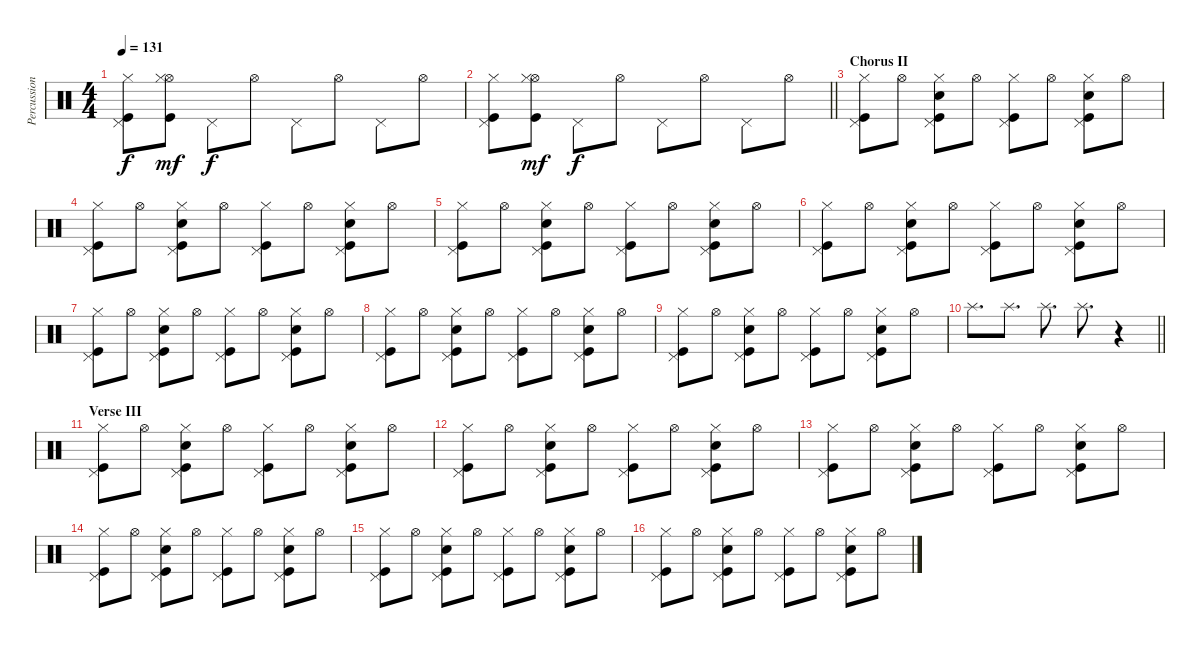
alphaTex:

\track ("Percussion II" "Percussion") {instrument percussion}
\staff {score}
\articulation defaults
\ts (4 4)
\tempo 131
\clef neutral
\ks c
("Pedal Hi-Hat (hit)" "Hi-Hat (closed)" "Kick (hit)").8{dy f} ("Hi-Hat (open)" "Hi-Hat (closed)" "Kick (hit)").8{dy mf} "Pedal Hi-Hat (hit)".8{dy f} "Hi-Hat (open)".8 "Pedal Hi-Hat (hit)".8 "Hi-Hat (open)".8 "Pedal Hi-Hat (hit)".8 "Hi-Hat (open)".8 |
\barLineRight lightlight
("Pedal Hi-Hat (hit)" "Hi-Hat (closed)" "Kick (hit)").8 ("Hi-Hat (open)" "Hi-Hat (closed)" "Kick (hit)").8{dy mf} "Pedal Hi-Hat (hit)".8{dy f} "Hi-Hat (open)".8 "Pedal Hi-Hat (hit)".8 "Hi-Hat (open)".8 "Pedal Hi-Hat (hit)".8 "Hi-Hat (open)".8 |
\section ("" "Chorus II")
("Pedal Hi-Hat (hit)" "Hi-Hat (closed)" "Kick (hit)").8 "Hi-Hat (open)".8 ("Pedal Hi-Hat (hit)" "Hand Clap (hit)" "Hi-Hat (closed)" "Kick (hit)").8 "Hi-Hat (open)".8 ("Pedal Hi-Hat (hit)" "Hi-Hat (closed)" "Kick (hit)").8 "Hi-Hat (open)".8 ("Pedal Hi-Hat (hit)" "Hand Clap (hit)" "Hi-Hat (closed)" "Kick (hit)").8 "Hi-Hat (open)".8 |
("Pedal Hi-Hat (hit)" "Hi-Hat (closed)" "Kick (hit)").8 "Hi-Hat (open)".8 ("Pedal Hi-Hat (hit)" "Hand Clap (hit)" "Hi-Hat (closed)" "Kick (hit)").8 "Hi-Hat (open)".8 ("Pedal Hi-Hat (hit)" "Hi-Hat (closed)" "Kick (hit)").8 "Hi-Hat (open)".8 ("Pedal Hi-Hat (hit)" "Hand Clap (hit)" "Hi-Hat (closed)" "Kick (hit)").8 "Hi-Hat (open)".8 |
("Pedal Hi-Hat (hit)" "Hi-Hat (closed)" "Kick (hit)").8 "Hi-Hat (open)".8 ("Pedal Hi-Hat (hit)" "Hand Clap (hit)" "Hi-Hat (closed)" "Kick (hit)").8 "Hi-Hat (open)".8 ("Pedal Hi-Hat (hit)" "Hi-Hat (closed)" "Kick (hit)").8 "Hi-Hat (open)".8 ("Pedal Hi-Hat (hit)" "Hand Clap (hit)" "Hi-Hat (closed)" "Kick (hit)").8 "Hi-Hat (open)".8 |
("Pedal Hi-Hat (hit)" "Hi-Hat (closed)" "Kick (hit)").8 "Hi-Hat (open)".8 ("Pedal Hi-Hat (hit)" "Hand Clap (hit)" "Hi-Hat (closed)" "Kick (hit)").8 "Hi-Hat (open)".8 ("Pedal Hi-Hat (hit)" "Hi-Hat (closed)" "Kick (hit)").8 "Hi-Hat (open)".8 ("Pedal Hi-Hat (hit)" "Hand Clap (hit)" "Hi-Hat (closed)" "Kick (hit)").8 "Hi-Hat (open)".8 |
("Pedal Hi-Hat (hit)" "Hi-Hat (closed)" "Kick (hit)").8 "Hi-Hat (open)".8 ("Pedal Hi-Hat (hit)" "Hand Clap (hit)" "Hi-Hat (closed)" "Kick (hit)").8 "Hi-Hat (open)".8 ("Pedal Hi-Hat (hit)" "Hi-Hat (closed)" "Kick (hit)").8 "Hi-Hat (open)".8 ("Pedal Hi-Hat (hit)" "Hand Clap (hit)" "Hi-Hat (closed)" "Kick (hit)").8 "Hi-Hat (open)".8 |
("Pedal Hi-Hat (hit)" "Hi-Hat (closed)" "Kick (hit)").8 "Hi-Hat (open)".8 ("Pedal Hi-Hat (hit)" "Hand Clap (hit)" "Hi-Hat (closed)" "Kick (hit)").8 "Hi-Hat (open)".8 ("Pedal Hi-Hat (hit)" "Hi-Hat (closed)" "Kick (hit)").8 "Hi-Hat (open)".8 ("Pedal Hi-Hat (hit)" "Hand Clap (hit)" "Hi-Hat (closed)" "Kick (hit)").8 "Hi-Hat (open)".8 |
("Pedal Hi-Hat (hit)" "Hi-Hat (closed)" "Kick (hit)").8 "Hi-Hat (open)".8 ("Pedal Hi-Hat (hit)" "Hand Clap (hit)" "Hi-Hat (closed)" "Kick (hit)").8 "Hi-Hat (open)".8 ("Pedal Hi-Hat (hit)" "Hi-Hat (closed)" "Kick (hit)").8 "Hi-Hat (open)".8 ("Pedal Hi-Hat (hit)" "Hand Clap (hit)" "Hi-Hat (closed)" "Kick (hit)").8 "Hi-Hat (open)".8 |
\barLineRight lightlight "Splash (hit)".8{d} "Splash (hit)".8{d} "Splash (hit)".8{d} "Splash (hit)".8{d}
r.4 |
\section ("" "Verse III")
("Pedal Hi-Hat (hit)" "Hi-Hat (closed)" "Kick (hit)").8 "Hi-Hat (open)".8 ("Pedal Hi-Hat (hit)" "Hand Clap (hit)" "Hi-Hat (closed)" "Kick (hit)").8 "Hi-Hat (open)".8 ("Pedal Hi-Hat (hit)" "Hi-Hat (closed)" "Kick (hit)").8 "Hi-Hat (open)".8 ("Pedal Hi-Hat (hit)" "Hand Clap (hit)" "Hi-Hat (closed)" "Kick (hit)").8 "Hi-Hat (open)".8 |
("Pedal Hi-Hat (hit)" "Hi-Hat (closed)" "Kick (hit)").8 "Hi-Hat (open)".8 ("Pedal Hi-Hat (hit)" "Hand Clap (hit)" "Hi-Hat (closed)" "Kick (hit)").8 "Hi-Hat (open)".8 ("Pedal Hi-Hat (hit)" "Hi-Hat (closed)" "Kick (hit)").8 "Hi-Hat (open)".8 ("Pedal Hi-Hat (hit)" "Hand Clap (hit)" "Hi-Hat (closed)" "Kick (hit)").8 "Hi-Hat (open)".8 |
("Pedal Hi-Hat (hit)" "Hi-Hat (closed)" "Kick (hit)").8 "Hi-Hat (open)".8 ("Pedal Hi-Hat (hit)" "Hand Clap (hit)" "Hi-Hat (closed)" "Kick (hit)").8 "Hi-Hat (open)".8 ("Pedal Hi-Hat (hit)" "Hi-Hat (closed)" "Kick (hit)").8 "Hi-Hat (open)".8 ("Pedal Hi-Hat (hit)" "Hand Clap (hit)" "Hi-Hat (closed)" "Kick (hit)").8 "Hi-Hat (open)".8 |
("Pedal Hi-Hat (hit)" "Hi-Hat (closed)" "Kick (hit)").8 "Hi-Hat (open)".8 ("Pedal Hi-Hat (hit)" "Hand Clap (hit)" "Hi-Hat (closed)" "Kick (hit)").8 "Hi-Hat (open)".8 ("Pedal Hi-Hat (hit)" "Hi-Hat (closed)" "Kick (hit)").8 "Hi-Hat (open)".8 ("Pedal Hi-Hat (hit)" "Hand Clap (hit)" "Hi-Hat (closed)" "Kick (hit)").8 "Hi-Hat (open)".8 |
("Pedal Hi-Hat (hit)" "Hi-Hat (closed)" "Kick (hit)").8 "Hi-Hat (open)".8 ("Pedal Hi-Hat (hit)" "Hand Clap (hit)" "Hi-Hat (closed)" "Kick (hit)").8 "Hi-Hat (open)".8 ("Pedal Hi-Hat (hit)" "Hi-Hat (closed)" "Kick (hit)").8 "Hi-Hat (open)".8 ("Pedal Hi-Hat (hit)" "Hand Clap (hit)" "Hi-Hat (closed)" "Kick (hit)").8 "Hi-Hat (open)".8 |
("Pedal Hi-Hat (hit)" "Hi-Hat (closed)" "Kick (hit)").8 "Hi-Hat (open)".8 ("Pedal Hi-Hat (hit)" "Hand Clap (hit)" "Hi-Hat (closed)" "Kick (hit)").8 "Hi-Hat (open)".8 ("Pedal Hi-Hat (hit)" "Hi-Hat (closed)" "Kick (hit)").8 "Hi-Hat (open)".8 ("Pedal Hi-Hat (hit)" "Hand Clap (hit)" "Hi-Hat (closed)" "Kick (hit)").8 "Hi-Hat (open)".8
